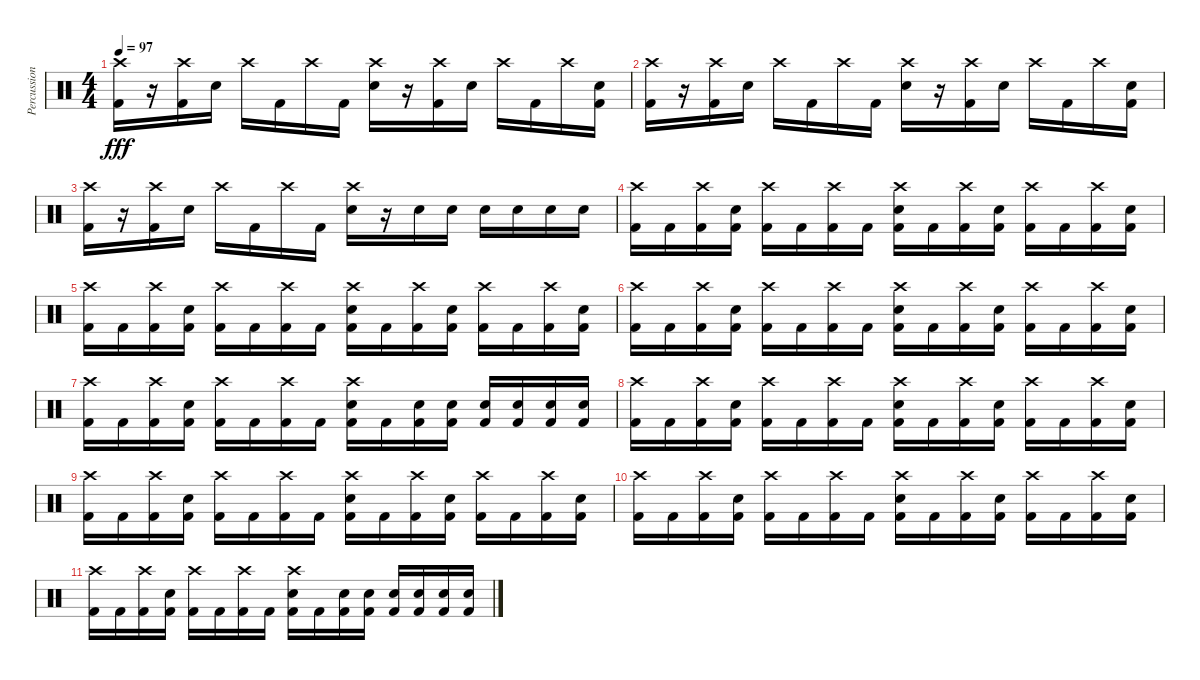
\track ("Percussion" "Percussion") {instrument percussion}
\staff {score}
\articulation defaults
\ts (4 4)
\tempo 97
\clef neutral
\ks c
("Crash high (hit)" "Kick (hit) 2").16{dy fff} r.16 ("Crash high (hit)" "Kick (hit) 2").16 "Snare (hit) 2".16 "Crash high (hit)".16 "Kick (hit) 2".16 "Crash high (hit)".16 "Kick (hit) 2".16 ("Crash high (hit)" "Snare (hit) 2").16 r.16 ("Crash high (hit)" "Kick (hit) 2").16 "Snare (hit) 2".16 "Crash high (hit)".16 "Kick (hit) 2".16 "Crash high (hit)".16 ("Snare (hit) 2" "Kick (hit) 2").16 |
("Crash high (hit)" "Kick (hit) 2").16 r.16 ("Crash high (hit)" "Kick (hit) 2").16 "Snare (hit) 2".16 "Crash high (hit)".16 "Kick (hit) 2".16 "Crash high (hit)".16 "Kick (hit) 2".16 ("Crash high (hit)" "Snare (hit) 2").16 r.16 ("Crash high (hit)" "Kick (hit) 2").16 "Snare (hit) 2".16 "Crash high (hit)".16 "Kick (hit) 2".16 "Crash high (hit)".16 ("Snare (hit) 2" "Kick (hit) 2").16 |
("Crash high (hit)" "Kick (hit) 2").16 r.16 ("Crash high (hit)" "Kick (hit) 2").16 "Snare (hit) 2".16 "Crash high (hit)".16 "Kick (hit) 2".16 "Crash high (hit)".16 "Kick (hit) 2".16 ("Crash high (hit)" "Snare (hit) 2").16 r.16 "Snare (hit) 2".16 "Snare (hit) 2".16 "Snare (hit) 2".16 "Snare (hit) 2".16 "Snare (hit) 2".16 "Snare (hit) 2".16 |
("Crash high (hit)" "Kick (hit) 2").16 "Kick (hit) 2".16 ("Crash high (hit)" "Kick (hit) 2").16 ("Snare (hit) 2" "Kick (hit) 2").16 ("Crash high (hit)" "Kick (hit) 2").16 "Kick (hit) 2".16 ("Crash high (hit)" "Kick (hit) 2").16 "Kick (hit) 2".16 ("Crash high (hit)" "Snare (hit) 2" "Kick (hit) 2").16 "Kick (hit) 2".16 ("Crash high (hit)" "Kick (hit) 2").16 ("Snare (hit) 2" "Kick (hit) 2").16 ("Crash high (hit)" "Kick (hit) 2").16 "Kick (hit) 2".16 ("Crash high (hit)" "Kick (hit) 2").16 ("Snare (hit) 2" "Kick (hit) 2").16 |
("Crash high (hit)" "Kick (hit) 2").16 "Kick (hit) 2".16 ("Crash high (hit)" "Kick (hit) 2").16 ("Snare (hit) 2" "Kick (hit) 2").16 ("Crash high (hit)" "Kick (hit) 2").16 "Kick (hit) 2".16 ("Crash high (hit)" "Kick (hit) 2").16 "Kick (hit) 2".16 ("Crash high (hit)" "Snare (hit) 2" "Kick (hit) 2").16 "Kick (hit) 2".16 ("Crash high (hit)" "Kick (hit) 2").16 ("Snare (hit) 2" "Kick (hit) 2").16 ("Crash high (hit)" "Kick (hit) 2").16 "Kick (hit) 2".16 ("Crash high (hit)" "Kick (hit) 2").16 ("Snare (hit) 2" "Kick (hit) 2").16 |
("Crash high (hit)" "Kick (hit) 2").16 "Kick (hit) 2".16 ("Crash high (hit)" "Kick (hit) 2").16 ("Snare (hit) 2" "Kick (hit) 2").16 ("Crash high (hit)" "Kick (hit) 2").16 "Kick (hit) 2".16 ("Crash high (hit)" "Kick (hit) 2").16 "Kick (hit) 2".16 ("Crash high (hit)" "Snare (hit) 2" "Kick (hit) 2").16 "Kick (hit) 2".16 ("Crash high (hit)" "Kick (hit) 2").16 ("Snare (hit) 2" "Kick (hit) 2").16 ("Crash high (hit)" "Kick (hit) 2").16 "Kick (hit) 2".16 ("Crash high (hit)" "Kick (hit) 2").16 ("Snare (hit) 2" "Kick (hit) 2").16 |
("Crash high (hit)" "Kick (hit) 2").16 "Kick (hit) 2".16 ("Crash high (hit)" "Kick (hit) 2").16 ("Snare (hit) 2" "Kick (hit) 2").16 ("Crash high (hit)" "Kick (hit) 2").16 "Kick (hit) 2".16 ("Crash high (hit)" "Kick (hit) 2").16 "Kick (hit) 2".16 ("Crash high (hit)" "Snare (hit) 2" "Kick (hit) 2").16 "Kick (hit) 2".16 ("Snare (hit) 2" "Kick (hit) 2").16 ("Snare (hit) 2" "Kick (hit) 2").16 ("Snare (hit) 2" "Kick (hit) 2").16 ("Snare (hit) 2" "Kick (hit) 2").16 ("Snare (hit) 2" "Kick (hit) 2").16 ("Snare (hit) 2" "Kick (hit) 2").16 |
("Crash high (hit)" "Kick (hit) 2").16 "Kick (hit) 2".16 ("Crash high (hit)" "Kick (hit) 2").16 ("Snare (hit) 2" "Kick (hit) 2").16 ("Crash high (hit)" "Kick (hit) 2").16 "Kick (hit) 2".16 ("Crash high (hit)" "Kick (hit) 2").16 "Kick (hit) 2".16 ("Crash high (hit)" "Snare (hit) 2" "Kick (hit) 2").16 "Kick (hit) 2".16 ("Crash high (hit)" "Kick (hit) 2").16 ("Snare (hit) 2" "Kick (hit) 2").16 ("Crash high (hit)" "Kick (hit) 2").16 "Kick (hit) 2".16 ("Crash high (hit)" "Kick (hit) 2").16 ("Snare (hit) 2" "Kick (hit) 2").16 |
("Crash high (hit)" "Kick (hit) 2").16 "Kick (hit) 2".16 ("Crash high (hit)" "Kick (hit) 2").16 ("Snare (hit) 2" "Kick (hit) 2").16 ("Crash high (hit)" "Kick (hit) 2").16 "Kick (hit) 2".16 ("Crash high (hit)" "Kick (hit) 2").16 "Kick (hit) 2".16 ("Crash high (hit)" "Snare (hit) 2" "Kick (hit) 2").16 "Kick (hit) 2".16 ("Crash high (hit)" "Kick (hit) 2").16 ("Snare (hit) 2" "Kick (hit) 2").16 ("Crash high (hit)" "Kick (hit) 2").16 "Kick (hit) 2".16 ("Crash high (hit)" "Kick (hit) 2").16 ("Snare (hit) 2" "Kick (hit) 2").16 |
("Crash high (hit)" "Kick (hit) 2").16 "Kick (hit) 2".16 ("Crash high (hit)" "Kick (hit) 2").16 ("Snare (hit) 2" "Kick (hit) 2").16 ("Crash high (hit)" "Kick (hit) 2").16 "Kick (hit) 2".16 ("Crash high (hit)" "Kick (hit) 2").16 "Kick (hit) 2".16 ("Crash high (hit)" "Snare (hit) 2" "Kick (hit) 2").16 "Kick (hit) 2".16 ("Crash high (hit)" "Kick (hit) 2").16 ("Snare (hit) 2" "Kick (hit) 2").16 ("Crash high (hit)" "Kick (hit) 2").16 "Kick (hit) 2".16 ("Crash high (hit)" "Kick (hit) 2").16 ("Snare (hit) 2" "Kick (hit) 2").16 |
("Crash high (hit)" "Kick (hit) 2").16 "Kick (hit) 2".16 ("Crash high (hit)" "Kick (hit) 2").16 ("Snare (hit) 2" "Kick (hit) 2").16 ("Crash high (hit)" "Kick (hit) 2").16 "Kick (hit) 2".16 ("Crash high (hit)" "Kick (hit) 2").16 "Kick (hit) 2".16 ("Crash high (hit)" "Snare (hit) 2" "Kick (hit) 2").16 "Kick (hit) 2".16 ("Snare (hit) 2" "Kick (hit) 2").16 ("Snare (hit) 2" "Kick (hit) 2").16 ("Snare (hit) 2" "Kick (hit) 2").16 ("Snare (hit) 2" "Kick (hit) 2").16 ("Snare (hit) 2" "Kick (hit) 2").16 ("Snare (hit) 2" "Kick (hit) 2").16
